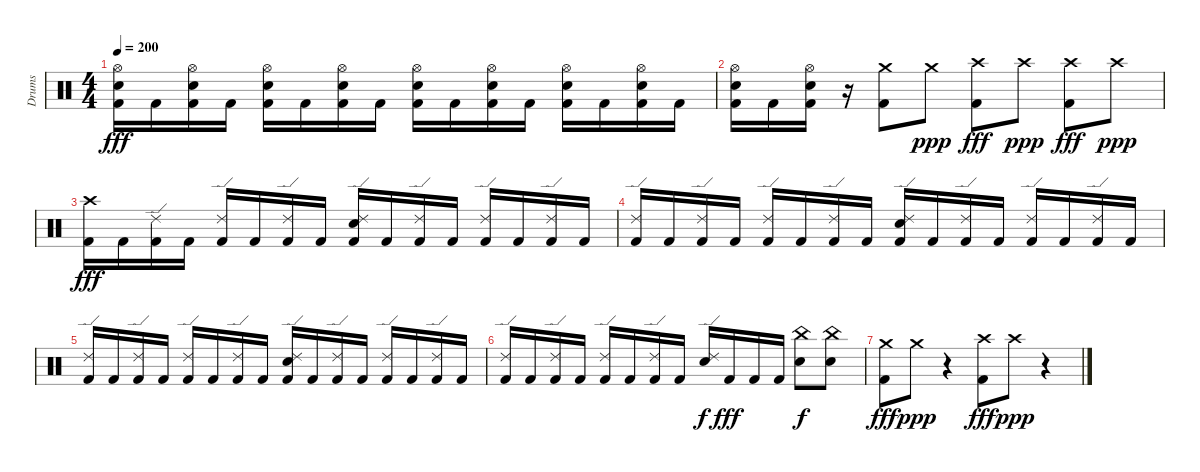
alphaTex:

\track ("Drums" "Drums") {instrument percussion}
\staff {score}
\articulation defaults
\ts (4 4)
\tempo 200
\clef neutral
\ks c
("Hi-Hat (open)" "Electric Snare (hit)" "Kick (hit) 2").16{dy fff} "Kick (hit) 2".16 ("Hi-Hat (open)" "Electric Snare (hit)" "Kick (hit) 2").16 "Kick (hit) 2".16 ("Hi-Hat (open)" "Electric Snare (hit)" "Kick (hit) 2").16 "Kick (hit) 2".16 ("Hi-Hat (open)" "Electric Snare (hit)" "Kick (hit) 2").16 "Kick (hit) 2".16 ("Hi-Hat (open)" "Electric Snare (hit)" "Kick (hit) 2").16 "Kick (hit) 2".16 ("Hi-Hat (open)" "Electric Snare (hit)" "Kick (hit) 2").16 "Kick (hit) 2".16 ("Hi-Hat (open)" "Electric Snare (hit)" "Kick (hit) 2").16 "Kick (hit) 2".16 ("Hi-Hat (open)" "Electric Snare (hit)" "Kick (hit) 2").16 "Kick (hit) 2".16 |
("Hi-Hat (open)" "Electric Snare (hit)" "Kick (hit) 2").16 "Kick (hit) 2".16 ("Hi-Hat (open)" "Electric Snare (hit)" "Kick (hit) 2").16 r.16 ("Crash medium (hit)" "Kick (hit) 2").8 "Crash medium (hit)".8{dy ppp} ("Crash high (hit)" "Kick (hit) 2").8{dy fff} "Crash high (hit)".8{dy ppp} ("Crash high (hit)" "Kick (hit) 2").8{dy fff} "Crash high (hit)".8{dy ppp} |
("Crash high (hit)" "Kick (hit) 2").16{dy fff} "Kick (hit) 2".16 ("Ride (edge) 2" "Kick (hit) 2").16 "Kick (hit) 2".16 ("Ride (edge) 2" "Kick (hit) 2").16 "Kick (hit) 2".16 ("Ride (edge) 2" "Kick (hit) 2").16 "Kick (hit) 2".16 ("Ride (edge) 2" "Electric Snare (hit)" "Kick (hit) 2").16 "Kick (hit) 2".16 ("Ride (edge) 2" "Kick (hit) 2").16 "Kick (hit) 2".16 ("Ride (edge) 2" "Kick (hit) 2").16 "Kick (hit) 2".16 ("Ride (edge) 2" "Kick (hit) 2").16 "Kick (hit) 2".16 |
("Ride (edge) 2" "Kick (hit) 2").16 "Kick (hit) 2".16 ("Ride (edge) 2" "Kick (hit) 2").16 "Kick (hit) 2".16 ("Ride (edge) 2" "Kick (hit) 2").16 "Kick (hit) 2".16 ("Ride (edge) 2" "Kick (hit) 2").16 "Kick (hit) 2".16 ("Ride (edge) 2" "Electric Snare (hit)" "Kick (hit) 2").16 "Kick (hit) 2".16 ("Ride (edge) 2" "Kick (hit) 2").16 "Kick (hit) 2".16 ("Ride (edge) 2" "Kick (hit) 2").16 "Kick (hit) 2".16 ("Ride (edge) 2" "Kick (hit) 2").16 "Kick (hit) 2".16 |
("Ride (edge) 2" "Kick (hit) 2").16 "Kick (hit) 2".16 ("Ride (edge) 2" "Kick (hit) 2").16 "Kick (hit) 2".16 ("Ride (edge) 2" "Kick (hit) 2").16 "Kick (hit) 2".16 ("Ride (edge) 2" "Kick (hit) 2").16 "Kick (hit) 2".16 ("Ride (edge) 2" "Electric Snare (hit)" "Kick (hit) 2").16 "Kick (hit) 2".16 ("Ride (edge) 2" "Kick (hit) 2").16 "Kick (hit) 2".16 ("Ride (edge) 2" "Kick (hit) 2").16 "Kick (hit) 2".16 ("Ride (edge) 2" "Kick (hit) 2").16 "Kick (hit) 2".16 |
("Ride (edge) 2" "Kick (hit) 2").16 "Kick (hit) 2".16 ("Ride (edge) 2" "Kick (hit) 2").16 "Kick (hit) 2".16 ("Ride (edge) 2" "Kick (hit) 2").16 "Kick (hit) 2".16 ("Ride (edge) 2" "Kick (hit) 2").16 "Kick (hit) 2".16 ("Ride (edge) 2" "Electric Snare (hit)").16{dy f} "Kick (hit) 2".16{dy fff} "Kick (hit) 2".16 "Kick (hit) 2".16 ("China (hit)" "Electric Snare (hit)").8{dy f} ("China (hit)" "Electric Snare (hit)").8 |
("Crash medium (hit)" "Kick (hit) 2").8{dy fff} "Crash medium (hit)".8{dy ppp} r.4 ("Crash high (hit)" "Kick (hit) 2").8{dy fff} "Crash high (hit)".8{dy ppp} r.4
